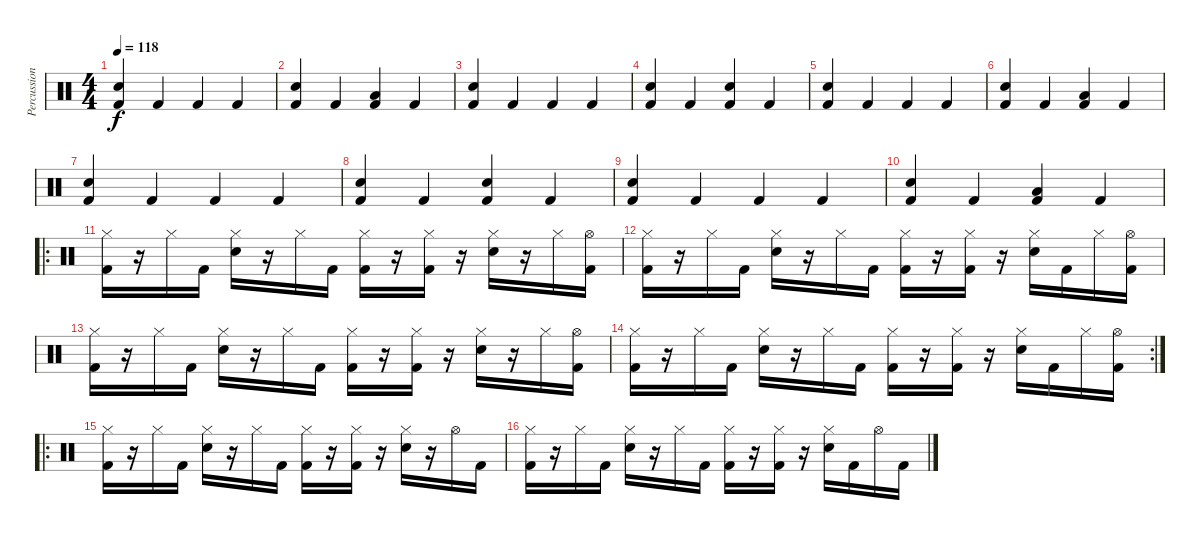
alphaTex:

\track ("Percussion" "Percussion") {instrument percussion}
\staff {score}
\articulation defaults
\ts (4 4)
\tempo 118
\clef neutral
\ks c
("Electric Snare (hit)" "Kick (hit) 2").4{dy f} "Kick (hit) 2".4 "Kick (hit) 2".4 "Kick (hit) 2".4 |
("Electric Snare (hit)" "Kick (hit) 2").4 "Kick (hit) 2".4 ("Low Floor Tom (hit)" "Kick (hit) 2").4 "Kick (hit) 2".4 |
("Electric Snare (hit)" "Kick (hit) 2").4 "Kick (hit) 2".4 "Kick (hit) 2".4 "Kick (hit) 2".4 |
("Electric Snare (hit)" "Kick (hit) 2").4 "Kick (hit) 2".4 ("Electric Snare (hit)" "Kick (hit) 2").4 "Kick (hit) 2".4 |
("Electric Snare (hit)" "Kick (hit) 2").4 "Kick (hit) 2".4 "Kick (hit) 2".4 "Kick (hit) 2".4 |
("Electric Snare (hit)" "Kick (hit) 2").4 "Kick (hit) 2".4 ("Low Floor Tom (hit)" "Kick (hit) 2").4 "Kick (hit) 2".4 |
("Electric Snare (hit)" "Kick (hit) 2").4 "Kick (hit) 2".4 "Kick (hit) 2".4 "Kick (hit) 2".4 |
("Electric Snare (hit)" "Kick (hit) 2").4 "Kick (hit) 2".4 ("Electric Snare (hit)" "Kick (hit) 2").4 "Kick (hit) 2".4 |
("Electric Snare (hit)" "Kick (hit) 2").4 "Kick (hit) 2".4 "Kick (hit) 2".4 "Kick (hit) 2".4 |
("Electric Snare (hit)" "Kick (hit) 2").4 "Kick (hit) 2".4 ("Low Floor Tom (hit)" "Kick (hit) 2").4 "Kick (hit) 2".4 |
\ro
("Hi-Hat (closed)" "Kick (hit) 2").16{volume 12} r.16 "Hi-Hat (closed)".16 "Kick (hit) 2".16 ("Hi-Hat (closed)" "Electric Snare (hit)").16 r.16 "Hi-Hat (closed)".16 "Kick (hit) 2".16 ("Hi-Hat (closed)" "Kick (hit) 2").16 r.16 ("Hi-Hat (closed)" "Kick (hit) 2").16 r.16 ("Hi-Hat (closed)" "Electric Snare (hit)").16 r.16 "Hi-Hat (closed)".16 ("Hi-Hat (open)" "Kick (hit) 2").16 |
("Hi-Hat (closed)" "Kick (hit) 2").16 r.16 "Hi-Hat (closed)".16 "Kick (hit) 2".16 ("Hi-Hat (closed)" "Electric Snare (hit)").16 r.16 "Hi-Hat (closed)".16 "Kick (hit) 2".16 ("Hi-Hat (closed)" "Kick (hit) 2").16 r.16 ("Hi-Hat (closed)" "Kick (hit) 2").16 r.16 ("Hi-Hat (closed)" "Electric Snare (hit)").16 "Kick (hit) 2".16 "Hi-Hat (closed)".16 ("Hi-Hat (open)" "Kick (hit) 2").16 |
("Hi-Hat (closed)" "Kick (hit) 2").16 r.16 "Hi-Hat (closed)".16 "Kick (hit) 2".16 ("Hi-Hat (closed)" "Electric Snare (hit)").16 r.16 "Hi-Hat (closed)".16 "Kick (hit) 2".16 ("Hi-Hat (closed)" "Kick (hit) 2").16 r.16 ("Hi-Hat (closed)" "Kick (hit) 2").16 r.16 ("Hi-Hat (closed)" "Electric Snare (hit)").16 r.16 "Hi-Hat (closed)".16 ("Hi-Hat (open)" "Kick (hit) 2").16 |
\rc 2
("Hi-Hat (closed)" "Kick (hit) 2").16 r.16 "Hi-Hat (closed)".16 "Kick (hit) 2".16 ("Hi-Hat (closed)" "Electric Snare (hit)").16 r.16 "Hi-Hat (closed)".16 "Kick (hit) 2".16 ("Hi-Hat (closed)" "Kick (hit) 2").16 r.16 ("Hi-Hat (closed)" "Kick (hit) 2").16 r.16 ("Hi-Hat (closed)" "Electric Snare (hit)").16 "Kick (hit) 2".16 "Hi-Hat (closed)".16 ("Hi-Hat (open)" "Kick (hit) 2").16 |
\ro
("Hi-Hat (closed)" "Kick (hit) 2").16 r.16 "Hi-Hat (closed)".16 "Kick (hit) 2".16 ("Hi-Hat (closed)" "Electric Snare (hit)").16 r.16 "Hi-Hat (closed)".16 "Kick (hit) 2".16 ("Hi-Hat (closed)" "Kick (hit) 2").16 r.16 ("Hi-Hat (closed)" "Kick (hit) 2").16 r.16 ("Hi-Hat (closed)" "Electric Snare (hit)").16 r.16 "Hi-Hat (open)".16 "Kick (hit) 2".16 |
("Hi-Hat (closed)" "Kick (hit) 2").16 r.16 "Hi-Hat (closed)".16 "Kick (hit) 2".16 ("Hi-Hat (closed)" "Electric Snare (hit)").16 r.16 "Hi-Hat (closed)".16 "Kick (hit) 2".16 ("Hi-Hat (closed)" "Kick (hit) 2").16 r.16 ("Hi-Hat (closed)" "Kick (hit) 2").16 r.16 ("Hi-Hat (closed)" "Electric Snare (hit)").16 "Kick (hit) 2".16 "Hi-Hat (open)".16 "Kick (hit) 2".16
